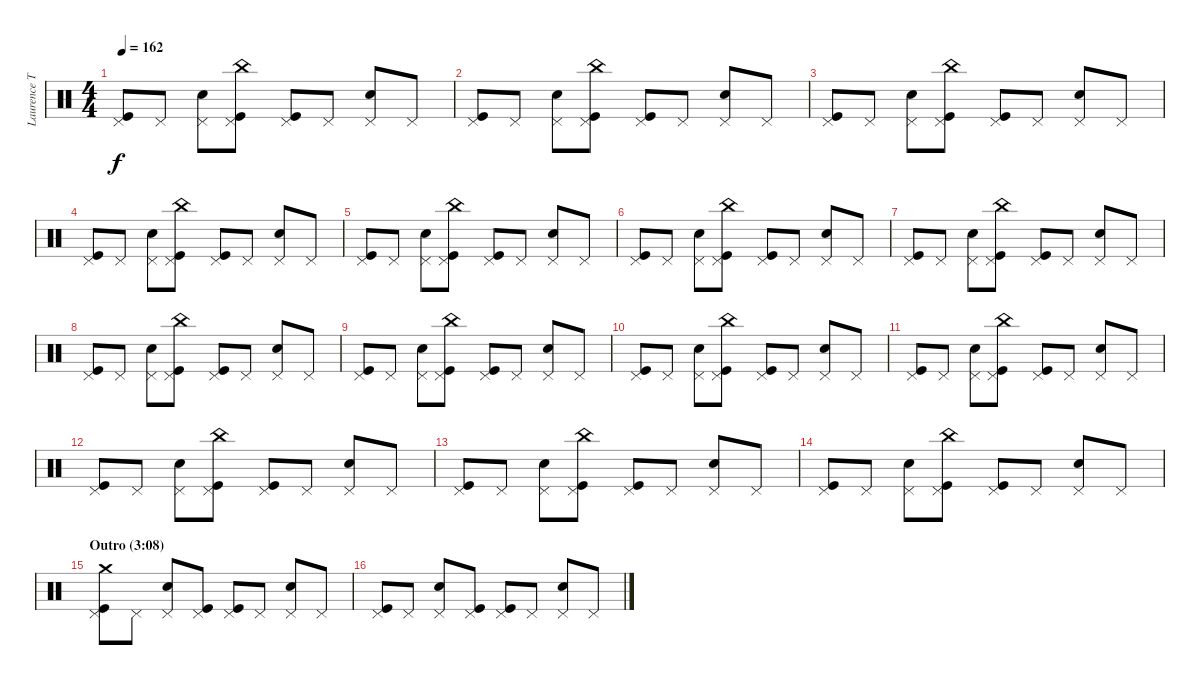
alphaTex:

\track ("Laurence Tolhurst (drums)" "Laurence T") {instrument percussion}
\staff {score}
\articulation defaults
\ts (4 4)
\tempo 162
\clef neutral
\ks c
("Pedal Hi-Hat (hit)" "Kick (hit)").8{dy f} "Pedal Hi-Hat (hit)".8 ("Pedal Hi-Hat (hit)" "Snare (hit) 2").8 ("China (hit)" "Pedal Hi-Hat (hit)" "Kick (hit)").8 ("Pedal Hi-Hat (hit)" "Kick (hit)").8 "Pedal Hi-Hat (hit)".8 ("Pedal Hi-Hat (hit)" "Snare (hit) 2").8 "Pedal Hi-Hat (hit)".8 |
("Pedal Hi-Hat (hit)" "Kick (hit)").8 "Pedal Hi-Hat (hit)".8 ("Pedal Hi-Hat (hit)" "Snare (hit) 2").8 ("China (hit)" "Pedal Hi-Hat (hit)" "Kick (hit)").8 ("Pedal Hi-Hat (hit)" "Kick (hit)").8 "Pedal Hi-Hat (hit)".8 ("Pedal Hi-Hat (hit)" "Snare (hit) 2").8 "Pedal Hi-Hat (hit)".8 |
("Pedal Hi-Hat (hit)" "Kick (hit)").8 "Pedal Hi-Hat (hit)".8 ("Pedal Hi-Hat (hit)" "Snare (hit) 2").8 ("China (hit)" "Pedal Hi-Hat (hit)" "Kick (hit)").8 ("Pedal Hi-Hat (hit)" "Kick (hit)").8 "Pedal Hi-Hat (hit)".8 ("Pedal Hi-Hat (hit)" "Snare (hit) 2").8 "Pedal Hi-Hat (hit)".8 |
("Pedal Hi-Hat (hit)" "Kick (hit)").8 "Pedal Hi-Hat (hit)".8 ("Pedal Hi-Hat (hit)" "Snare (hit) 2").8 ("China (hit)" "Pedal Hi-Hat (hit)" "Kick (hit)").8 ("Pedal Hi-Hat (hit)" "Kick (hit)").8 "Pedal Hi-Hat (hit)".8 ("Pedal Hi-Hat (hit)" "Snare (hit) 2").8 "Pedal Hi-Hat (hit)".8 |
("Pedal Hi-Hat (hit)" "Kick (hit)").8 "Pedal Hi-Hat (hit)".8 ("Pedal Hi-Hat (hit)" "Snare (hit) 2").8 ("China (hit)" "Pedal Hi-Hat (hit)" "Kick (hit)").8 ("Pedal Hi-Hat (hit)" "Kick (hit)").8 "Pedal Hi-Hat (hit)".8 ("Pedal Hi-Hat (hit)" "Snare (hit) 2").8 "Pedal Hi-Hat (hit)".8 |
("Pedal Hi-Hat (hit)" "Kick (hit)").8 "Pedal Hi-Hat (hit)".8 ("Pedal Hi-Hat (hit)" "Snare (hit) 2").8 ("China (hit)" "Pedal Hi-Hat (hit)" "Kick (hit)").8 ("Pedal Hi-Hat (hit)" "Kick (hit)").8 "Pedal Hi-Hat (hit)".8 ("Pedal Hi-Hat (hit)" "Snare (hit) 2").8 "Pedal Hi-Hat (hit)".8 |
("Pedal Hi-Hat (hit)" "Kick (hit)").8 "Pedal Hi-Hat (hit)".8 ("Pedal Hi-Hat (hit)" "Snare (hit) 2").8 ("China (hit)" "Pedal Hi-Hat (hit)" "Kick (hit)").8 ("Pedal Hi-Hat (hit)" "Kick (hit)").8 "Pedal Hi-Hat (hit)".8 ("Pedal Hi-Hat (hit)" "Snare (hit) 2").8 "Pedal Hi-Hat (hit)".8 |
("Pedal Hi-Hat (hit)" "Kick (hit)").8 "Pedal Hi-Hat (hit)".8 ("Pedal Hi-Hat (hit)" "Snare (hit) 2").8 ("China (hit)" "Pedal Hi-Hat (hit)" "Kick (hit)").8 ("Pedal Hi-Hat (hit)" "Kick (hit)").8 "Pedal Hi-Hat (hit)".8 ("Pedal Hi-Hat (hit)" "Snare (hit) 2").8 "Pedal Hi-Hat (hit)".8 |
("Pedal Hi-Hat (hit)" "Kick (hit)").8 "Pedal Hi-Hat (hit)".8 ("Pedal Hi-Hat (hit)" "Snare (hit) 2").8 ("China (hit)" "Pedal Hi-Hat (hit)" "Kick (hit)").8 ("Pedal Hi-Hat (hit)" "Kick (hit)").8 "Pedal Hi-Hat (hit)".8 ("Pedal Hi-Hat (hit)" "Snare (hit) 2").8 "Pedal Hi-Hat (hit)".8 |
("Pedal Hi-Hat (hit)" "Kick (hit)").8 "Pedal Hi-Hat (hit)".8 ("Pedal Hi-Hat (hit)" "Snare (hit) 2").8 ("China (hit)" "Pedal Hi-Hat (hit)" "Kick (hit)").8 ("Pedal Hi-Hat (hit)" "Kick (hit)").8 "Pedal Hi-Hat (hit)".8 ("Pedal Hi-Hat (hit)" "Snare (hit) 2").8 "Pedal Hi-Hat (hit)".8 |
("Pedal Hi-Hat (hit)" "Kick (hit)").8 "Pedal Hi-Hat (hit)".8 ("Pedal Hi-Hat (hit)" "Snare (hit) 2").8 ("China (hit)" "Pedal Hi-Hat (hit)" "Kick (hit)").8 ("Pedal Hi-Hat (hit)" "Kick (hit)").8 "Pedal Hi-Hat (hit)".8 ("Pedal Hi-Hat (hit)" "Snare (hit) 2").8 "Pedal Hi-Hat (hit)".8 |
("Pedal Hi-Hat (hit)" "Kick (hit)").8 "Pedal Hi-Hat (hit)".8 ("Pedal Hi-Hat (hit)" "Snare (hit) 2").8 ("China (hit)" "Pedal Hi-Hat (hit)" "Kick (hit)").8 ("Pedal Hi-Hat (hit)" "Kick (hit)").8 "Pedal Hi-Hat (hit)".8 ("Pedal Hi-Hat (hit)" "Snare (hit) 2").8 "Pedal Hi-Hat (hit)".8 |
("Pedal Hi-Hat (hit)" "Kick (hit)").8 "Pedal Hi-Hat (hit)".8 ("Pedal Hi-Hat (hit)" "Snare (hit) 2").8 ("China (hit)" "Pedal Hi-Hat (hit)" "Kick (hit)").8 ("Pedal Hi-Hat (hit)" "Kick (hit)").8 "Pedal Hi-Hat (hit)".8 ("Pedal Hi-Hat (hit)" "Snare (hit) 2").8 "Pedal Hi-Hat (hit)".8 |
("Pedal Hi-Hat (hit)" "Kick (hit)").8 "Pedal Hi-Hat (hit)".8 ("Pedal Hi-Hat (hit)" "Snare (hit) 2").8 ("China (hit)" "Pedal Hi-Hat (hit)" "Kick (hit)").8 ("Pedal Hi-Hat (hit)" "Kick (hit)").8 "Pedal Hi-Hat (hit)".8 ("Pedal Hi-Hat (hit)" "Snare (hit) 2").8 "Pedal Hi-Hat (hit)".8 |
\section ("" "Outro (3:08)")
("Crash medium (hit)" "Pedal Hi-Hat (hit)" "Kick (hit)").8 "Pedal Hi-Hat (hit)".8 ("Pedal Hi-Hat (hit)" "Snare (hit) 2").8 ("Pedal Hi-Hat (hit)" "Kick (hit)").8 ("Pedal Hi-Hat (hit)" "Kick (hit)").8 "Pedal Hi-Hat (hit)".8 ("Pedal Hi-Hat (hit)" "Snare (hit) 2").8 "Pedal Hi-Hat (hit)".8 |
("Pedal Hi-Hat (hit)" "Kick (hit)").8 "Pedal Hi-Hat (hit)".8 ("Pedal Hi-Hat (hit)" "Snare (hit) 2").8 ("Pedal Hi-Hat (hit)" "Kick (hit)").8 ("Pedal Hi-Hat (hit)" "Kick (hit)").8 "Pedal Hi-Hat (hit)".8 ("Pedal Hi-Hat (hit)" "Snare (hit) 2").8 "Pedal Hi-Hat (hit)".8
